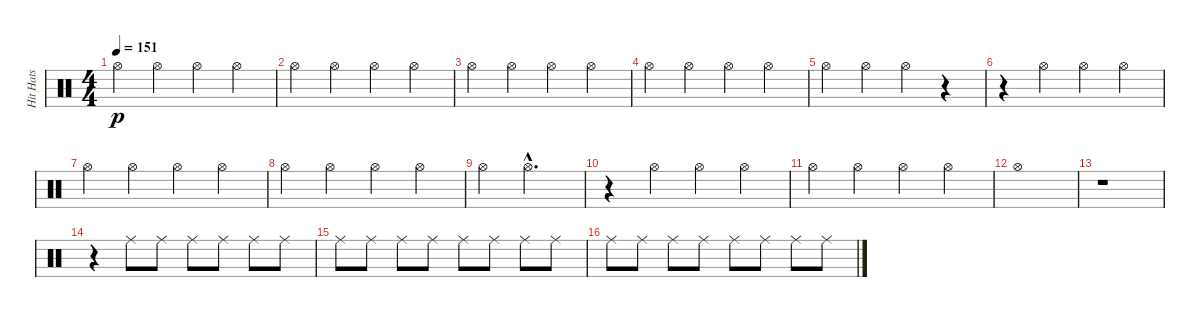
\track ("Hit Hats" "Hit Hats") {instrument percussion}
\staff {score}
\articulation defaults
\ts (4 4)
\tempo 151
\clef neutral
\ks c "Hi-Hat (open)".4{dy p} "Hi-Hat (open)".4 "Hi-Hat (open)".4 "Hi-Hat (open)".4
|
"Hi-Hat (open)".4 "Hi-Hat (open)".4 "Hi-Hat (open)".4 "Hi-Hat (open)".4 |
"Hi-Hat (open)".4 "Hi-Hat (open)".4 "Hi-Hat (open)".4 "Hi-Hat (open)".4 |
"Hi-Hat (open)".4 "Hi-Hat (open)".4 "Hi-Hat (open)".4 "Hi-Hat (open)".4 |
"Hi-Hat (open)".4 "Hi-Hat (open)".4 "Hi-Hat (open)".4 r.4 |
r.4 "Hi-Hat (open)".4 "Hi-Hat (open)".4 "Hi-Hat (open)".4 |
"Hi-Hat (open)".4 "Hi-Hat (open)".4 "Hi-Hat (open)".4 "Hi-Hat (open)".4 |
"Hi-Hat (open)".4 "Hi-Hat (open)".4 "Hi-Hat (open)".4 "Hi-Hat (open)".4 |
"Hi-Hat (open)".4 "Hi-Hat (open)"{hac}.2{d} |
r.4 "Hi-Hat (open)".4 "Hi-Hat (open)".4 "Hi-Hat (open)".4 |
"Hi-Hat (open)".4 "Hi-Hat (open)".4 "Hi-Hat (open)".4 "Hi-Hat (open)".4 |
"Hi-Hat (open)".1 |
r.1 |
r.4 "Ride (middle)".8 "Ride (middle)".8 "Ride (middle)".8 "Ride (middle)".8 "Ride (middle)".8 "Ride (middle)".8 |
"Ride (middle)".8 "Ride (middle)".8 "Ride (middle)".8 "Ride (middle)".8 "Ride (middle)".8 "Ride (middle)".8 "Ride (middle)".8 "Ride (middle)".8 |
"Ride (middle)".8 "Ride (middle)".8 "Ride (middle)".8 "Ride (middle)".8 "Ride (middle)".8 "Ride (middle)".8 "Ride (middle)".8 "Ride (middle)".8
